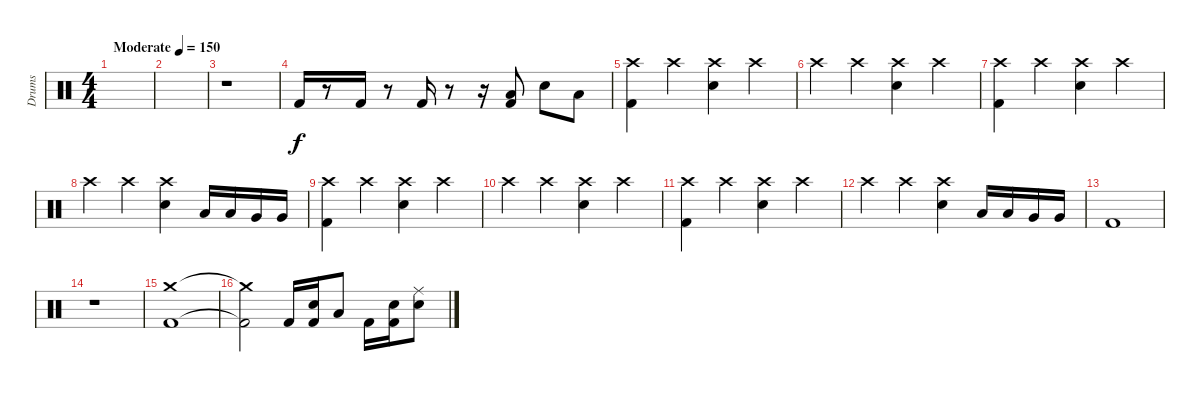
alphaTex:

\track ("Drums" "Drums") {instrument percussion}
\staff {score}
\articulation defaults
\ts (4 4)
\tempo (150 "Moderate")
\clef neutral
\ks c
|
|
r.1 |
"Kick (hit) 2".16 r.8 "Kick (hit) 2".16 r.8 "Kick (hit) 2".16 r.8 r.16 ("Low Floor Tom (hit)" "Kick (hit) 2").8 "Electric Snare (hit)".8 "Low Floor Tom (hit)".8 |
("Crash high (hit)" "Kick (hit) 2").4 "Crash high (hit)".4 ("Crash high (hit)" "Electric Snare (hit)").4 "Crash high (hit)".4 |
"Crash high (hit)".4 "Crash high (hit)".4 ("Crash high (hit)" "Electric Snare (hit)").4 "Crash high (hit)".4 |
("Crash high (hit)" "Kick (hit) 2").4 "Crash high (hit)".4 ("Crash high (hit)" "Electric Snare (hit)").4 "Crash high (hit)".4 |
"Crash high (hit)".4 "Crash high (hit)".4 ("Crash high (hit)" "Electric Snare (hit)").4 "Low Tom (hit)".16 "Low Tom (hit)".16 "Very Low Tom (hit)".16 "Very Low Tom (hit)".16 |
("Crash high (hit)" "Kick (hit) 2").4 "Crash high (hit)".4 ("Crash high (hit)" "Electric Snare (hit)").4 "Crash high (hit)".4 |
"Crash high (hit)".4 "Crash high (hit)".4 ("Crash high (hit)" "Electric Snare (hit)").4 "Crash high (hit)".4 |
("Crash high (hit)" "Kick (hit) 2").4 "Crash high (hit)".4 ("Crash high (hit)" "Electric Snare (hit)").4 "Crash high (hit)".4 |
"Crash high (hit)".4 "Crash high (hit)".4 ("Crash high (hit)" "Electric Snare (hit)").4 "Low Tom (hit)".16 "Low Tom (hit)".16 "Very Low Tom (hit)".16 "Very Low Tom (hit)".16 |
"Kick (hit) 2".1 |
r.1 |
("Crash medium (hit)" "Kick (hit) 2").1 |
("Crash medium (hit)"{t} "Kick (hit) 2"{t}).2 "Kick (hit) 2".16 ("Electric Snare (hit)" "Kick (hit) 2").16 "Low Tom (hit)".8 "Kick (hit) 2".16 ("Electric Snare (hit)" "Kick (hit) 2").16 ("Ride (middle)" "Electric Snare (hit)").8
